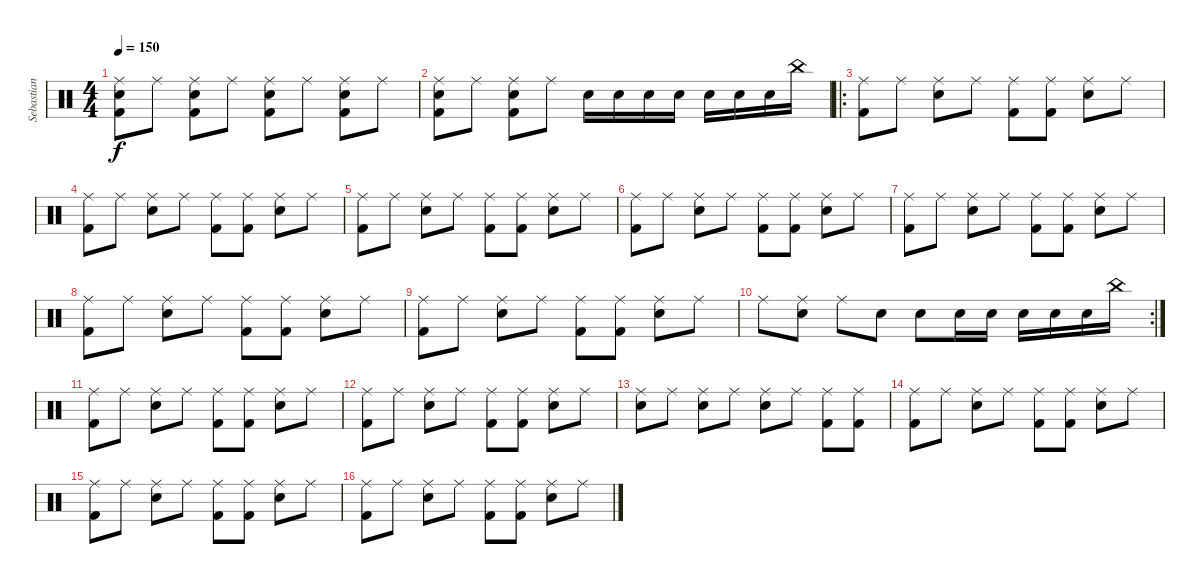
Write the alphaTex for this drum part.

\track ("Sebastian" "Sebastian") {instrument percussion}
\staff {score}
\articulation defaults
\ts (4 4)
\tempo 150
\clef neutral
\ks c
("Electric Snare (hit)" "Kick (hit) 2" "Ride (middle)").8{dy f} "Ride (middle)".8 ("Electric Snare (hit)" "Kick (hit) 2" "Ride (middle)").8 "Ride (middle)".8 ("Electric Snare (hit)" "Kick (hit) 2" "Ride (middle)").8 "Ride (middle)".8 ("Electric Snare (hit)" "Kick (hit) 2" "Ride (middle)").8 "Ride (middle)".8 |
("Electric Snare (hit)" "Kick (hit) 2" "Ride (middle)").8 "Ride (middle)".8 ("Electric Snare (hit)" "Kick (hit) 2" "Ride (middle)").8 "Ride (middle)".8 "Electric Snare (hit)".16 "Electric Snare (hit)".16 "Electric Snare (hit)".16 "Electric Snare (hit)".16 "Electric Snare (hit)".16 "Electric Snare (hit)".16 "Electric Snare (hit)".16 "China (hit)".16 |
\ro
("Kick (hit) 2" "Ride (middle)").8 "Ride (middle)".8 ("Electric Snare (hit)" "Ride (middle)").8 "Ride (middle)".8 ("Kick (hit) 2" "Ride (middle)").8 ("Kick (hit) 2" "Ride (middle)").8 ("Electric Snare (hit)" "Ride (middle)").8 "Ride (middle)".8 |
("Kick (hit) 2" "Ride (middle)").8 "Ride (middle)".8 ("Electric Snare (hit)" "Ride (middle)").8 "Ride (middle)".8 ("Kick (hit) 2" "Ride (middle)").8 ("Kick (hit) 2" "Ride (middle)").8 ("Electric Snare (hit)" "Ride (middle)").8 "Ride (middle)".8 |
("Kick (hit) 2" "Ride (middle)").8 "Ride (middle)".8 ("Electric Snare (hit)" "Ride (middle)").8 "Ride (middle)".8 ("Kick (hit) 2" "Ride (middle)").8 ("Kick (hit) 2" "Ride (middle)").8 ("Electric Snare (hit)" "Ride (middle)").8 "Ride (middle)".8 |
("Kick (hit) 2" "Ride (middle)").8 "Ride (middle)".8 ("Electric Snare (hit)" "Ride (middle)").8 "Ride (middle)".8 ("Kick (hit) 2" "Ride (middle)").8 ("Kick (hit) 2" "Ride (middle)").8 ("Electric Snare (hit)" "Ride (middle)").8 "Ride (middle)".8 |
("Kick (hit) 2" "Ride (middle)").8 "Ride (middle)".8 ("Electric Snare (hit)" "Ride (middle)").8 "Ride (middle)".8 ("Kick (hit) 2" "Ride (middle)").8 ("Kick (hit) 2" "Ride (middle)").8 ("Electric Snare (hit)" "Ride (middle)").8 "Ride (middle)".8 |
("Kick (hit) 2" "Ride (middle)").8 "Ride (middle)".8 ("Electric Snare (hit)" "Ride (middle)").8 "Ride (middle)".8 ("Kick (hit) 2" "Ride (middle)").8 ("Kick (hit) 2" "Ride (middle)").8 ("Electric Snare (hit)" "Ride (middle)").8 "Ride (middle)".8 |
("Kick (hit) 2" "Ride (middle)").8 "Ride (middle)".8 ("Electric Snare (hit)" "Ride (middle)").8 "Ride (middle)".8 ("Kick (hit) 2" "Ride (middle)").8 ("Kick (hit) 2" "Ride (middle)").8 ("Electric Snare (hit)" "Ride (middle)").8 "Ride (middle)".8 |
\rc 2 "Ride (middle)".8
("Electric Snare (hit)" "Ride (middle)").8 "Ride (middle)".8 "Electric Snare (hit)".8 "Electric Snare (hit)".8 "Electric Snare (hit)".16 "Electric Snare (hit)".16 "Electric Snare (hit)".16 "Electric Snare (hit)".16 "Electric Snare (hit)".16 "China (hit)".16 |
("Kick (hit) 2" "Ride (middle)").8 "Ride (middle)".8 ("Electric Snare (hit)" "Ride (middle)").8 "Ride (middle)".8 ("Kick (hit) 2" "Ride (middle)").8 ("Kick (hit) 2" "Ride (middle)").8 ("Electric Snare (hit)" "Ride (middle)").8 "Ride (middle)".8 |
("Kick (hit) 2" "Ride (middle)").8 "Ride (middle)".8 ("Electric Snare (hit)" "Ride (middle)").8 "Ride (middle)".8 ("Kick (hit) 2" "Ride (middle)").8 ("Kick (hit) 2" "Ride (middle)").8 ("Electric Snare (hit)" "Ride (middle)").8 "Ride (middle)".8 |
("Electric Snare (hit)" "Ride (middle)").8 "Ride (middle)".8 ("Electric Snare (hit)" "Ride (middle)").8 "Ride (middle)".8 ("Electric Snare (hit)" "Ride (middle)").8 "Ride (middle)".8 ("Kick (hit) 2" "Ride (middle)").8 ("Kick (hit) 2" "Ride (middle)").8 |
("Kick (hit) 2" "Ride (middle)").8 "Ride (middle)".8 ("Electric Snare (hit)" "Ride (middle)").8 "Ride (middle)".8 ("Kick (hit) 2" "Ride (middle)").8 ("Kick (hit) 2" "Ride (middle)").8 ("Electric Snare (hit)" "Ride (middle)").8 "Ride (middle)".8 |
("Kick (hit) 2" "Ride (middle)").8 "Ride (middle)".8 ("Electric Snare (hit)" "Ride (middle)").8 "Ride (middle)".8 ("Kick (hit) 2" "Ride (middle)").8 ("Kick (hit) 2" "Ride (middle)").8 ("Electric Snare (hit)" "Ride (middle)").8 "Ride (middle)".8 |
("Kick (hit) 2" "Ride (middle)").8 "Ride (middle)".8 ("Electric Snare (hit)" "Ride (middle)").8 "Ride (middle)".8 ("Kick (hit) 2" "Ride (middle)").8 ("Kick (hit) 2" "Ride (middle)").8 ("Electric Snare (hit)" "Ride (middle)").8 "Ride (middle)".8
